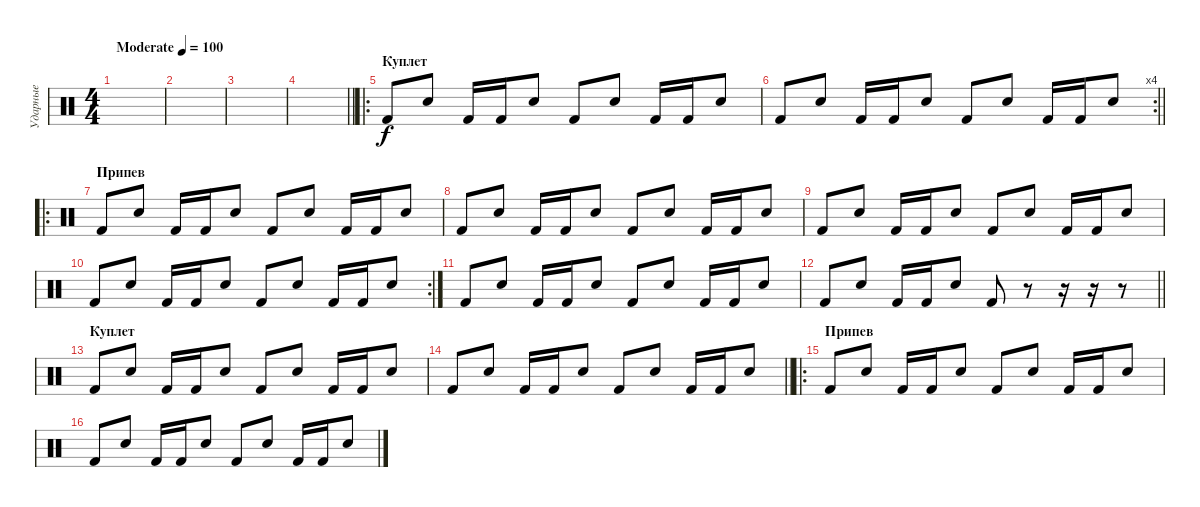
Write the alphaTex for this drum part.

\track ("Ударные" "Ударные") {instrument percussion}
\staff {score}
\articulation defaults
\ts (4 4)
\tempo (100 "Moderate")
\clef neutral
\ks c
|
|
|
\barLineRight lightlight
|
\ro
\section ("" "Куплет")
"Kick (hit) 2".8 "Snare (hit) 2".8 "Kick (hit) 2".16 "Kick (hit) 2".16 "Snare (hit) 2".8 "Kick (hit) 2".8 "Snare (hit) 2".8 "Kick (hit) 2".16 "Kick (hit) 2".16 "Snare (hit) 2".8 |
\rc 4
\barLineRight lightlight "Kick (hit) 2".8 "Snare (hit) 2".8 "Kick (hit) 2".16 "Kick (hit) 2".16 "Snare (hit) 2".8 "Kick (hit) 2".8 "Snare (hit) 2".8 "Kick (hit) 2".16 "Kick (hit) 2".16 "Snare (hit) 2".8
|
\ro
\section ("" "Припев")
"Kick (hit) 2".8 "Snare (hit) 2".8 "Kick (hit) 2".16 "Kick (hit) 2".16 "Snare (hit) 2".8 "Kick (hit) 2".8 "Snare (hit) 2".8 "Kick (hit) 2".16 "Kick (hit) 2".16 "Snare (hit) 2".8 |
"Kick (hit) 2".8 "Snare (hit) 2".8 "Kick (hit) 2".16 "Kick (hit) 2".16 "Snare (hit) 2".8 "Kick (hit) 2".8 "Snare (hit) 2".8 "Kick (hit) 2".16 "Kick (hit) 2".16 "Snare (hit) 2".8 |
"Kick (hit) 2".8 "Snare (hit) 2".8 "Kick (hit) 2".16 "Kick (hit) 2".16 "Snare (hit) 2".8 "Kick (hit) 2".8 "Snare (hit) 2".8 "Kick (hit) 2".16 "Kick (hit) 2".16 "Snare (hit) 2".8 |
\rc 2 "Kick (hit) 2".8 "Snare (hit) 2".8 "Kick (hit) 2".16 "Kick (hit) 2".16 "Snare (hit) 2".8 "Kick (hit) 2".8 "Snare (hit) 2".8 "Kick (hit) 2".16 "Kick (hit) 2".16 "Snare (hit) 2".8
|
"Kick (hit) 2".8 "Snare (hit) 2".8 "Kick (hit) 2".16 "Kick (hit) 2".16 "Snare (hit) 2".8 "Kick (hit) 2".8 "Snare (hit) 2".8 "Kick (hit) 2".16 "Kick (hit) 2".16 "Snare (hit) 2".8 |
\barLineRight lightlight "Kick (hit) 2".8 "Snare (hit) 2".8 "Kick (hit) 2".16 "Kick (hit) 2".16 "Snare (hit) 2".8 "Kick (hit) 2".8
r.8 r.16 r.16 r.8 |
\section ("" "Куплет")
"Kick (hit) 2".8 "Snare (hit) 2".8 "Kick (hit) 2".16 "Kick (hit) 2".16 "Snare (hit) 2".8 "Kick (hit) 2".8 "Snare (hit) 2".8 "Kick (hit) 2".16 "Kick (hit) 2".16 "Snare (hit) 2".8 |
\barLineRight lightlight "Kick (hit) 2".8 "Snare (hit) 2".8 "Kick (hit) 2".16 "Kick (hit) 2".16 "Snare (hit) 2".8 "Kick (hit) 2".8 "Snare (hit) 2".8 "Kick (hit) 2".16 "Kick (hit) 2".16 "Snare (hit) 2".8
|
\ro
\section ("" "Припев")
"Kick (hit) 2".8 "Snare (hit) 2".8 "Kick (hit) 2".16 "Kick (hit) 2".16 "Snare (hit) 2".8 "Kick (hit) 2".8 "Snare (hit) 2".8 "Kick (hit) 2".16 "Kick (hit) 2".16 "Snare (hit) 2".8 |
"Kick (hit) 2".8 "Snare (hit) 2".8 "Kick (hit) 2".16 "Kick (hit) 2".16 "Snare (hit) 2".8 "Kick (hit) 2".8 "Snare (hit) 2".8 "Kick (hit) 2".16 "Kick (hit) 2".16 "Snare (hit) 2".8
